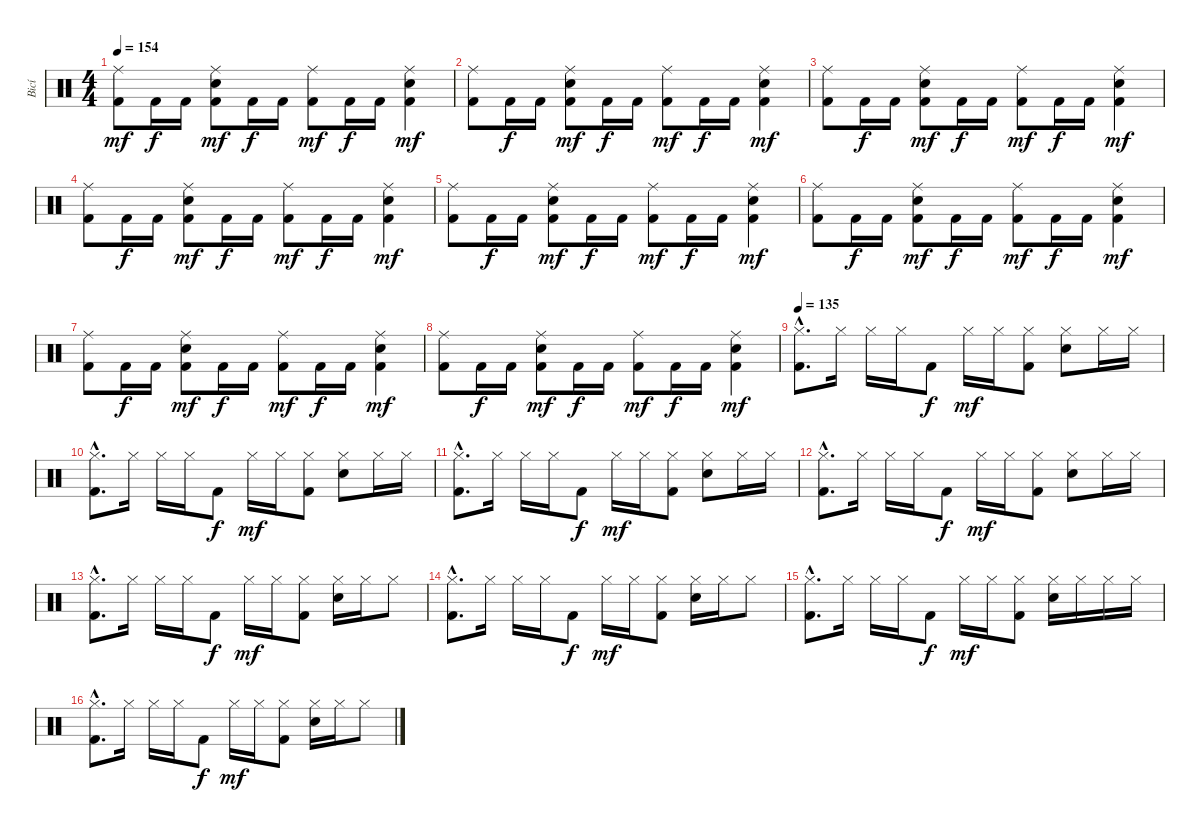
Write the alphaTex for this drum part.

\track ("Bicí" "Bicí") {instrument percussion}
\staff {score}
\articulation defaults
\ts (4 4)
\tempo 154
\clef neutral
\ks c
("Ride (middle)" "Kick (hit) 2").8{dy mf} "Kick (hit) 2".16{dy f} "Kick (hit) 2".16 ("Ride (middle)" "Kick (hit) 2" "Electric Snare (hit)").8{dy mf} "Kick (hit) 2".16{dy f} "Kick (hit) 2".16 ("Ride (middle)" "Kick (hit) 2").8{dy mf} "Kick (hit) 2".16{dy f} "Kick (hit) 2".16 ("Ride (middle)" "Kick (hit) 2" "Electric Snare (hit)").4{dy mf} |
("Ride (middle)" "Kick (hit) 2").8 "Kick (hit) 2".16{dy f} "Kick (hit) 2".16 ("Ride (middle)" "Kick (hit) 2" "Electric Snare (hit)").8{dy mf} "Kick (hit) 2".16{dy f} "Kick (hit) 2".16 ("Ride (middle)" "Kick (hit) 2").8{dy mf} "Kick (hit) 2".16{dy f} "Kick (hit) 2".16 ("Ride (middle)" "Kick (hit) 2" "Electric Snare (hit)").4{dy mf} |
("Ride (middle)" "Kick (hit) 2").8 "Kick (hit) 2".16{dy f} "Kick (hit) 2".16 ("Ride (middle)" "Kick (hit) 2" "Electric Snare (hit)").8{dy mf} "Kick (hit) 2".16{dy f} "Kick (hit) 2".16 ("Ride (middle)" "Kick (hit) 2").8{dy mf} "Kick (hit) 2".16{dy f} "Kick (hit) 2".16 ("Ride (middle)" "Kick (hit) 2" "Electric Snare (hit)").4{dy mf} |
("Ride (middle)" "Kick (hit) 2").8 "Kick (hit) 2".16{dy f} "Kick (hit) 2".16 ("Ride (middle)" "Kick (hit) 2" "Electric Snare (hit)").8{dy mf} "Kick (hit) 2".16{dy f} "Kick (hit) 2".16 ("Ride (middle)" "Kick (hit) 2").8{dy mf} "Kick (hit) 2".16{dy f} "Kick (hit) 2".16 ("Ride (middle)" "Kick (hit) 2" "Electric Snare (hit)").4{dy mf} |
("Ride (middle)" "Kick (hit) 2").8 "Kick (hit) 2".16{dy f} "Kick (hit) 2".16 ("Ride (middle)" "Kick (hit) 2" "Electric Snare (hit)").8{dy mf} "Kick (hit) 2".16{dy f} "Kick (hit) 2".16 ("Ride (middle)" "Kick (hit) 2").8{dy mf} "Kick (hit) 2".16{dy f} "Kick (hit) 2".16 ("Ride (middle)" "Kick (hit) 2" "Electric Snare (hit)").4{dy mf} |
("Ride (middle)" "Kick (hit) 2").8 "Kick (hit) 2".16{dy f} "Kick (hit) 2".16 ("Ride (middle)" "Kick (hit) 2" "Electric Snare (hit)").8{dy mf} "Kick (hit) 2".16{dy f} "Kick (hit) 2".16 ("Ride (middle)" "Kick (hit) 2").8{dy mf} "Kick (hit) 2".16{dy f} "Kick (hit) 2".16 ("Ride (middle)" "Kick (hit) 2" "Electric Snare (hit)").4{dy mf} |
("Ride (middle)" "Kick (hit) 2").8 "Kick (hit) 2".16{dy f} "Kick (hit) 2".16 ("Ride (middle)" "Kick (hit) 2" "Electric Snare (hit)").8{dy mf} "Kick (hit) 2".16{dy f} "Kick (hit) 2".16 ("Ride (middle)" "Kick (hit) 2").8{dy mf} "Kick (hit) 2".16{dy f} "Kick (hit) 2".16 ("Ride (middle)" "Kick (hit) 2" "Electric Snare (hit)").4{dy mf} |
("Ride (middle)" "Kick (hit) 2").8 "Kick (hit) 2".16{dy f} "Kick (hit) 2".16 ("Ride (middle)" "Kick (hit) 2" "Electric Snare (hit)").8{dy mf} "Kick (hit) 2".16{dy f} "Kick (hit) 2".16 ("Ride (middle)" "Kick (hit) 2").8{dy mf} "Kick (hit) 2".16{dy f} "Kick (hit) 2".16 ("Ride (middle)" "Kick (hit) 2" "Electric Snare (hit)").4{dy mf} |
\tempo 135
("Hi-Hat (closed)"{hac} "Kick (hit) 2"{hac}).8{d} "Hi-Hat (closed)".16 "Hi-Hat (closed)".16 "Hi-Hat (closed)".16 "Kick (hit) 2".8{dy f} "Hi-Hat (closed)".16{dy mf} "Hi-Hat (closed)".16 ("Hi-Hat (closed)" "Kick (hit) 2").8 ("Hi-Hat (closed)" "Electric Snare (hit)").8 "Hi-Hat (closed)".16 "Hi-Hat (closed)".16 |
("Hi-Hat (closed)"{hac} "Kick (hit) 2"{hac}).8{d} "Hi-Hat (closed)".16 "Hi-Hat (closed)".16 "Hi-Hat (closed)".16 "Kick (hit) 2".8{dy f} "Hi-Hat (closed)".16{dy mf} "Hi-Hat (closed)".16 ("Hi-Hat (closed)" "Kick (hit) 2").8 ("Hi-Hat (closed)" "Electric Snare (hit)").8 "Hi-Hat (closed)".16 "Hi-Hat (closed)".16 |
("Hi-Hat (closed)"{hac} "Kick (hit) 2"{hac}).8{d} "Hi-Hat (closed)".16 "Hi-Hat (closed)".16 "Hi-Hat (closed)".16 "Kick (hit) 2".8{dy f} "Hi-Hat (closed)".16{dy mf} "Hi-Hat (closed)".16 ("Hi-Hat (closed)" "Kick (hit) 2").8 ("Hi-Hat (closed)" "Electric Snare (hit)").8 "Hi-Hat (closed)".16 "Hi-Hat (closed)".16 |
("Hi-Hat (closed)"{hac} "Kick (hit) 2"{hac}).8{d} "Hi-Hat (closed)".16 "Hi-Hat (closed)".16 "Hi-Hat (closed)".16 "Kick (hit) 2".8{dy f} "Hi-Hat (closed)".16{dy mf} "Hi-Hat (closed)".16 ("Hi-Hat (closed)" "Kick (hit) 2").8 ("Hi-Hat (closed)" "Electric Snare (hit)").8 "Hi-Hat (closed)".16 "Hi-Hat (closed)".16 |
("Hi-Hat (closed)"{hac} "Kick (hit) 2"{hac}).8{d} "Hi-Hat (closed)".16 "Hi-Hat (closed)".16 "Hi-Hat (closed)".16 "Kick (hit) 2".8{dy f} "Hi-Hat (closed)".16{dy mf} "Hi-Hat (closed)".16 ("Hi-Hat (closed)" "Kick (hit) 2").8 ("Hi-Hat (closed)" "Electric Snare (hit)").16 "Hi-Hat (closed)".16 "Hi-Hat (closed)".8 |
("Hi-Hat (closed)"{hac} "Kick (hit) 2"{hac}).8{d} "Hi-Hat (closed)".16 "Hi-Hat (closed)".16 "Hi-Hat (closed)".16 "Kick (hit) 2".8{dy f} "Hi-Hat (closed)".16{dy mf} "Hi-Hat (closed)".16 ("Hi-Hat (closed)" "Kick (hit) 2").8 ("Hi-Hat (closed)" "Electric Snare (hit)").16 "Hi-Hat (closed)".16 "Hi-Hat (closed)".8 |
("Hi-Hat (closed)"{hac} "Kick (hit) 2"{hac}).8{d} "Hi-Hat (closed)".16 "Hi-Hat (closed)".16 "Hi-Hat (closed)".16 "Kick (hit) 2".8{dy f} "Hi-Hat (closed)".16{dy mf} "Hi-Hat (closed)".16 ("Hi-Hat (closed)" "Kick (hit) 2").8 ("Hi-Hat (closed)" "Electric Snare (hit)").16 "Hi-Hat (closed)".16 "Hi-Hat (closed)".16 "Hi-Hat (closed)".16 |
("Hi-Hat (closed)"{hac} "Kick (hit) 2"{hac}).8{d} "Hi-Hat (closed)".16 "Hi-Hat (closed)".16 "Hi-Hat (closed)".16 "Kick (hit) 2".8{dy f} "Hi-Hat (closed)".16{dy mf} "Hi-Hat (closed)".16 ("Hi-Hat (closed)" "Kick (hit) 2").8 ("Hi-Hat (closed)" "Electric Snare (hit)").16 "Hi-Hat (closed)".16 "Hi-Hat (closed)".8
